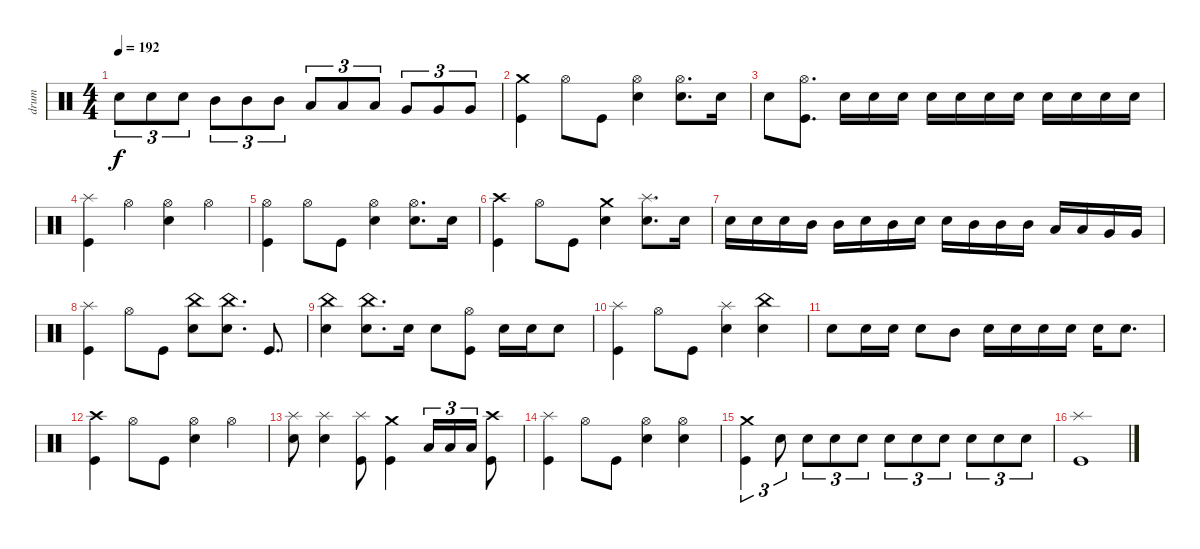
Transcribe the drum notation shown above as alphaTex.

\track ("drum" "drum") {instrument percussion}
\staff {score}
\articulation defaults
\ts (4 4)
\tempo 192
\clef neutral
\ks c "Electric Snare (hit)".8{tu (3 2) dy f} "Electric Snare (hit)".8{tu (3 2)} "Electric Snare (hit)".8{tu (3 2)} "Mid Tom (hit)".8{tu (3 2)} "Mid Tom (hit)".8{tu (3 2)} "Mid Tom (hit)".8{tu (3 2)} "Low Tom (hit)".8{tu (3 2)} "Low Tom (hit)".8{tu (3 2)} "Low Tom (hit)".8{tu (3 2)} "Very Low Tom (hit)".8{tu (3 2)} "Very Low Tom (hit)".8{tu (3 2)} "Very Low Tom (hit)".8{tu (3 2)}
|
("Kick (hit)" "Crash medium (hit)").4 "Hi-Hat (open)".8 "Kick (hit)".8 ("Electric Snare (hit)" "Hi-Hat (open)").4 ("Electric Snare (hit)" "Hi-Hat (open)").8{d} "Electric Snare (hit)".16 |
"Electric Snare (hit)".8 ("Kick (hit)" "Hi-Hat (open)").8{d} "Electric Snare (hit)".16 "Electric Snare (hit)".16 "Electric Snare (hit)".16 "Electric Snare (hit)".16 "Electric Snare (hit)".16 "Electric Snare (hit)".16 "Electric Snare (hit)".16 "Electric Snare (hit)".16 "Electric Snare (hit)".16 "Electric Snare (hit)".16 "Electric Snare (hit)".16 |
("Kick (hit)" "Splash (hit)").4 "Hi-Hat (open)".4 ("Electric Snare (hit)" "Hi-Hat (open)").4 "Hi-Hat (open)".4 |
("Kick (hit)" "Hi-Hat (open)").4 "Hi-Hat (open)".8 "Kick (hit)".8 ("Electric Snare (hit)" "Hi-Hat (open)").4 ("Electric Snare (hit)" "Hi-Hat (open)").8{d} "Electric Snare (hit)".16 |
("Kick (hit)" "Crash high (hit)").4 "Hi-Hat (open)".8 "Kick (hit)".8 ("Electric Snare (hit)" "Crash medium (hit)").4 ("Electric Snare (hit)" "Splash (hit)").8{d} "Electric Snare (hit)".16 |
"Electric Snare (hit)".16 "Electric Snare (hit)".16 "Electric Snare (hit)".16 "Mid Tom (hit)".16 "Mid Tom (hit)".16 "Electric Snare (hit)".16 "Mid Tom (hit)".16 "Electric Snare (hit)".16 "Electric Snare (hit)".16 "Mid Tom (hit)".16 "Mid Tom (hit)".16 "Mid Tom (hit)".16 "Low Tom (hit)".16 "Low Tom (hit)".16 "Very Low Tom (hit)".16 "Very Low Tom (hit)".16 |
("Kick (hit)" "Splash (hit)").4 "Hi-Hat (open)".8 "Kick (hit)".8 ("Electric Snare (hit)" "China (hit)").8 ("Electric Snare (hit)" "China (hit)").8{d} "Kick (hit)".8{d} |
("Electric Snare (hit)" "China (hit)").4 ("Electric Snare (hit)" "China (hit)").8{d} "Electric Snare (hit)".16 "Electric Snare (hit)".8 ("Kick (hit)" "Hi-Hat (open)").8 "Electric Snare (hit)".16 "Electric Snare (hit)".16 "Electric Snare (hit)".8 |
("Kick (hit)" "Splash (hit)").4 "Hi-Hat (open)".8 "Kick (hit)".8 ("Electric Snare (hit)" "Splash (hit)").4 ("Electric Snare (hit)" "China (hit)").4 |
"Electric Snare (hit)".8 "Electric Snare (hit)".16 "Electric Snare (hit)".16 "Electric Snare (hit)".8 "Mid Tom (hit)".8 "Electric Snare (hit)".16 "Electric Snare (hit)".16 "Electric Snare (hit)".16 "Electric Snare (hit)".16 "Electric Snare (hit)".16 "Electric Snare (hit)".8{d} |
("Kick (hit)" "Crash high (hit)").4 "Hi-Hat (open)".8 "Kick (hit)".8 ("Electric Snare (hit)" "Hi-Hat (open)").4 "Hi-Hat (open)".4 |
("Electric Snare (hit)" "Splash (hit)").8 ("Electric Snare (hit)" "Splash (hit)").4 ("Kick (hit)" "Splash (hit)").8 ("Kick (hit)" "Crash medium (hit)").4 "Low Tom (hit)".16{tu (3 2)} "Low Tom (hit)".16{tu (3 2)} "Low Tom (hit)".16{tu (3 2)} ("Kick (hit)" "Crash high (hit)").8 |
("Kick (hit)" "Splash (hit)").4 "Hi-Hat (open)".8 "Kick (hit)".8 ("Electric Snare (hit)" "Hi-Hat (open)").4 ("Electric Snare (hit)" "Hi-Hat (open)").4 |
("Kick (hit)" "Crash medium (hit)").4{tu (3 2)} "Electric Snare (hit)".8{tu (3 2)} "Electric Snare (hit)".8{tu (3 2)} "Electric Snare (hit)".8{tu (3 2)} "Electric Snare (hit)".8{tu (3 2)} "Electric Snare (hit)".8{tu (3 2)} "Electric Snare (hit)".8{tu (3 2)} "Electric Snare (hit)".8{tu (3 2)} "Electric Snare (hit)".8{tu (3 2)} "Electric Snare (hit)".8{tu (3 2)} "Electric Snare (hit)".8{tu (3 2)} |
("Kick (hit)" "Splash (hit)").1
